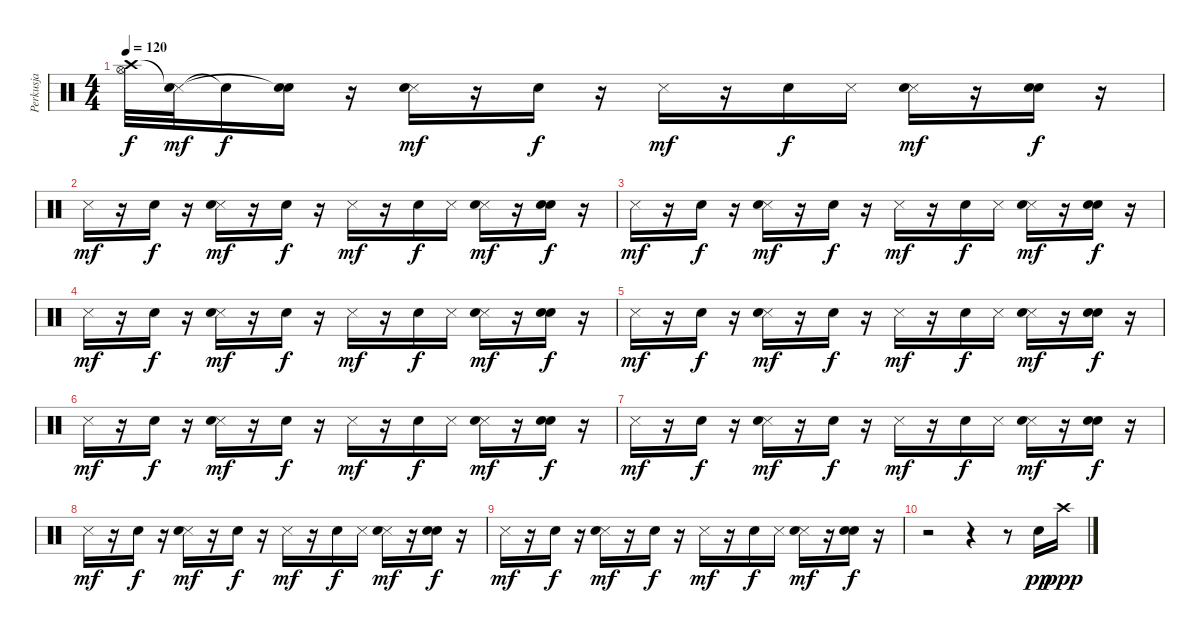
\track ("Perkusja" "Perkusja") {instrument percussion}
\staff {score}
\articulation defaults
\ts (4 4)
\tempo 120
\clef neutral
\ks c
("Hi-Hat (open)" "Crash high (hit)").32{dy f} ("Metronome (hit)" "Snare (hit)"{t}).32{dy mf} "Snare (hit)"{t}.16{dy f} ("Electric Snare (hit)" "Snare (hit)"{t}).16 r.16 ("Snare (side stick) 3" "Metronome (bell)").16{dy mf} r.16 "Snare (hit) 2".16{dy f} r.16 "Metronome (hit)".16{dy mf} r.16 "Electric Snare (hit)".16{dy f} "Snare (side stick) 3".16 ("Snare (side stick) 3" "Metronome (bell)").16{dy mf} r.16 ("Snare (hit) 2" "Metronome (bell)").16{dy f} r.16 |
"Metronome (hit)".16{dy mf} r.16 "Electric Snare (hit)".16{dy f} r.16 ("Snare (side stick) 3" "Metronome (bell)").16{dy mf} r.16 "Snare (hit) 2".16{dy f} r.16 "Metronome (hit)".16{dy mf} r.16 "Electric Snare (hit)".16{dy f} "Snare (side stick) 3".16 ("Snare (side stick) 3" "Metronome (bell)").16{dy mf} r.16 ("Snare (hit) 2" "Metronome (bell)").16{dy f} r.16 |
"Metronome (hit)".16{dy mf} r.16 "Electric Snare (hit)".16{dy f} r.16 ("Snare (side stick) 3" "Metronome (bell)").16{dy mf} r.16 "Snare (hit) 2".16{dy f} r.16 "Metronome (hit)".16{dy mf} r.16 "Electric Snare (hit)".16{dy f} "Snare (side stick) 3".16 ("Snare (side stick) 3" "Metronome (bell)").16{dy mf} r.16 ("Snare (hit) 2" "Metronome (bell)").16{dy f} r.16 |
"Metronome (hit)".16{dy mf} r.16 "Electric Snare (hit)".16{dy f} r.16 ("Snare (side stick) 3" "Metronome (bell)").16{dy mf} r.16 "Snare (hit) 2".16{dy f} r.16 "Metronome (hit)".16{dy mf} r.16 "Electric Snare (hit)".16{dy f} "Snare (side stick) 3".16 ("Snare (side stick) 3" "Metronome (bell)").16{dy mf} r.16 ("Snare (hit) 2" "Metronome (bell)").16{dy f} r.16 |
"Metronome (hit)".16{dy mf} r.16 "Electric Snare (hit)".16{dy f} r.16 ("Snare (side stick) 3" "Metronome (bell)").16{dy mf} r.16 "Snare (hit) 2".16{dy f} r.16 "Metronome (hit)".16{dy mf} r.16 "Electric Snare (hit)".16{dy f} "Snare (side stick) 3".16 ("Snare (side stick) 3" "Metronome (bell)").16{dy mf} r.16 ("Snare (hit) 2" "Metronome (bell)").16{dy f} r.16 |
"Metronome (hit)".16{dy mf} r.16 "Electric Snare (hit)".16{dy f} r.16 ("Snare (side stick) 3" "Metronome (bell)").16{dy mf} r.16 "Snare (hit) 2".16{dy f} r.16 "Metronome (hit)".16{dy mf} r.16 "Electric Snare (hit)".16{dy f} "Snare (side stick) 3".16 ("Snare (side stick) 3" "Metronome (bell)").16{dy mf} r.16 ("Snare (hit) 2" "Metronome (bell)").16{dy f} r.16 |
"Metronome (hit)".16{dy mf} r.16 "Electric Snare (hit)".16{dy f} r.16 ("Snare (side stick) 3" "Metronome (bell)").16{dy mf} r.16 "Snare (hit) 2".16{dy f} r.16 "Metronome (hit)".16{dy mf} r.16 "Electric Snare (hit)".16{dy f} "Snare (side stick) 3".16 ("Snare (side stick) 3" "Metronome (bell)").16{dy mf} r.16 ("Snare (hit) 2" "Metronome (bell)").16{dy f} r.16 |
"Metronome (hit)".16{dy mf} r.16 "Electric Snare (hit)".16{dy f} r.16 ("Snare (side stick) 3" "Metronome (bell)").16{dy mf} r.16 "Snare (hit) 2".16{dy f} r.16 "Metronome (hit)".16{dy mf} r.16 "Electric Snare (hit)".16{dy f} "Snare (side stick) 3".16 ("Snare (side stick) 3" "Metronome (bell)").16{dy mf} r.16 ("Snare (hit) 2" "Metronome (bell)").16{dy f} r.16 |
"Metronome (hit)".16{dy mf} r.16 "Electric Snare (hit)".16{dy f} r.16 ("Snare (side stick) 3" "Metronome (bell)").16{dy mf} r.16 "Snare (hit) 2".16{dy f} r.16 "Metronome (hit)".16{dy mf} r.16 "Electric Snare (hit)".16{dy f} "Snare (side stick) 3".16 ("Snare (side stick) 3" "Metronome (bell)").16{dy mf} r.16 ("Snare (hit) 2" "Metronome (bell)").16{dy f} r.16 |
r.2 r.4 r.8 "Electric Snare (hit)".16{dy pp} "Crash high (hit)".16{dy ppp}
